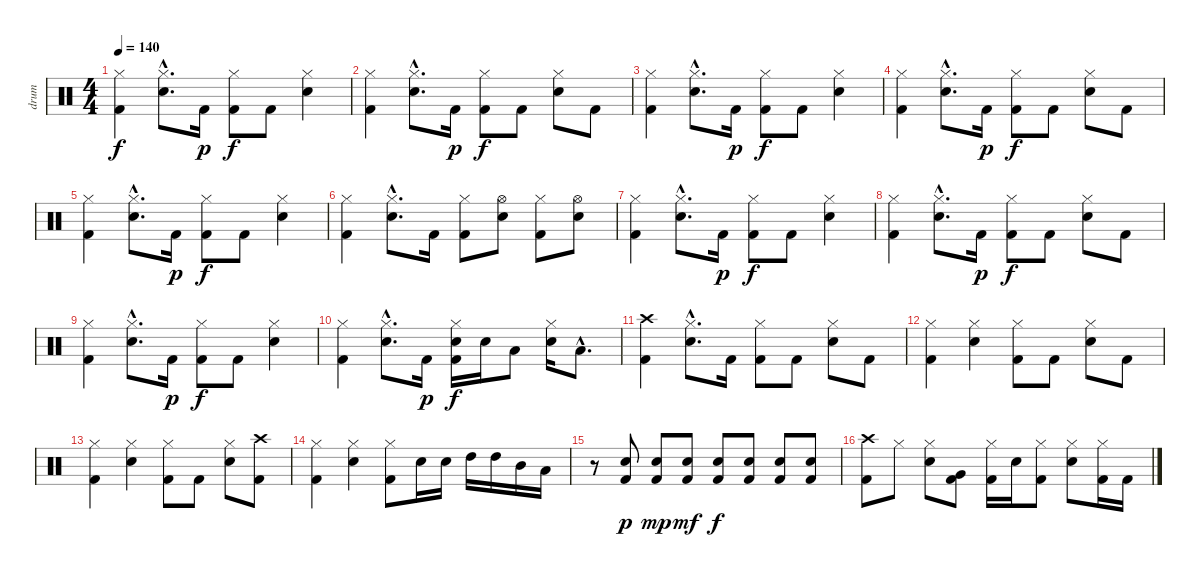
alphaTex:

\track ("drum" "drum") {instrument percussion}
\staff {score}
\articulation defaults
\ts (4 4)
\tempo 140
\clef neutral
\ks c
("Hi-Hat (closed)" "Kick (hit) 2").4{dy f} ("Hi-Hat (closed)"{hac} "Snare (hit) 2"{hac}).8{d} "Kick (hit) 2".16{dy p} ("Hi-Hat (closed)" "Kick (hit) 2").8{dy f} "Kick (hit) 2".8 ("Hi-Hat (closed)" "Snare (hit) 2").4 |
("Hi-Hat (closed)" "Kick (hit) 2").4 ("Hi-Hat (closed)"{hac} "Snare (hit) 2"{hac}).8{d} "Kick (hit) 2".16{dy p} ("Hi-Hat (closed)" "Kick (hit) 2").8{dy f} "Kick (hit) 2".8 ("Hi-Hat (closed)" "Snare (hit) 2").8 "Kick (hit) 2".8 |
("Hi-Hat (closed)" "Kick (hit) 2").4 ("Hi-Hat (closed)"{hac} "Snare (hit) 2"{hac}).8{d} "Kick (hit) 2".16{dy p} ("Hi-Hat (closed)" "Kick (hit) 2").8{dy f} "Kick (hit) 2".8 ("Hi-Hat (closed)" "Snare (hit) 2").4 |
("Hi-Hat (closed)" "Kick (hit) 2").4 ("Hi-Hat (closed)"{hac} "Snare (hit) 2"{hac}).8{d} "Kick (hit) 2".16{dy p} ("Hi-Hat (closed)" "Kick (hit) 2").8{dy f} "Kick (hit) 2".8 ("Hi-Hat (closed)" "Snare (hit) 2").8 "Kick (hit) 2".8 |
("Hi-Hat (closed)" "Kick (hit) 2").4 ("Hi-Hat (closed)"{hac} "Snare (hit) 2"{hac}).8{d} "Kick (hit) 2".16{dy p} ("Hi-Hat (closed)" "Kick (hit) 2").8{dy f} "Kick (hit) 2".8 ("Hi-Hat (closed)" "Snare (hit) 2").4 |
("Hi-Hat (closed)" "Kick (hit) 2").4 ("Hi-Hat (closed)"{hac} "Snare (hit) 2"{hac}).8{d} "Kick (hit) 2".16 ("Hi-Hat (closed)" "Kick (hit) 2").8 ("Hi-Hat (open)" "Snare (hit) 2").8 ("Hi-Hat (closed)" "Kick (hit) 2").8 ("Hi-Hat (open)" "Snare (hit) 2").8 |
("Hi-Hat (closed)" "Kick (hit) 2").4 ("Hi-Hat (closed)"{hac} "Snare (hit) 2"{hac}).8{d} "Kick (hit) 2".16{dy p} ("Hi-Hat (closed)" "Kick (hit) 2").8{dy f} "Kick (hit) 2".8 ("Hi-Hat (closed)" "Snare (hit) 2").4 |
("Hi-Hat (closed)" "Kick (hit) 2").4 ("Hi-Hat (closed)"{hac} "Snare (hit) 2"{hac}).8{d} "Kick (hit) 2".16{dy p} ("Hi-Hat (closed)" "Kick (hit) 2").8{dy f} "Kick (hit) 2".8 ("Hi-Hat (closed)" "Snare (hit) 2").8 "Kick (hit) 2".8 |
("Hi-Hat (closed)" "Kick (hit) 2").4 ("Hi-Hat (closed)"{hac} "Snare (hit) 2"{hac}).8{d} "Kick (hit) 2".16{dy p} ("Hi-Hat (closed)" "Kick (hit) 2").8{dy f} "Kick (hit) 2".8 ("Hi-Hat (closed)" "Snare (hit) 2").4 |
("Hi-Hat (closed)" "Kick (hit) 2").4 ("Hi-Hat (closed)"{hac} "Snare (hit) 2"{hac}).8{d} "Kick (hit) 2".16{dy p} ("Hi-Hat (closed)" "Snare (hit) 2" "Kick (hit) 2").16{dy f} "Snare (hit) 2".16 "Low Tom (hit)".8 ("Hi-Hat (closed)" "Snare (hit) 2").16 "Low Tom (hit)"{hac}.8{d} |
("Crash high (hit)" "Kick (hit) 2").4 ("Hi-Hat (closed)"{hac} "Snare (hit) 2"{hac}).8{d} "Kick (hit) 2".16 ("Hi-Hat (closed)" "Kick (hit) 2").8 "Kick (hit) 2".8 ("Hi-Hat (closed)" "Snare (hit) 2").8 "Kick (hit) 2".8 |
("Hi-Hat (closed)" "Kick (hit) 2").4 ("Hi-Hat (closed)" "Snare (hit) 2").4 ("Hi-Hat (closed)" "Kick (hit) 2").8 "Kick (hit) 2".8 ("Hi-Hat (closed)" "Snare (hit) 2").8 "Kick (hit) 2".8 |
("Hi-Hat (closed)" "Kick (hit) 2").4 ("Hi-Hat (closed)" "Snare (hit) 2").4 ("Hi-Hat (closed)" "Kick (hit) 2").8 "Kick (hit) 2".8 ("Hi-Hat (closed)" "Snare (hit) 2").8 ("Crash high (hit)" "Kick (hit) 2").8 |
("Hi-Hat (closed)" "Kick (hit) 2").4 ("Hi-Hat (closed)" "Snare (hit) 2").4 ("Hi-Hat (closed)" "Kick (hit) 2").8 "Snare (hit) 2".16 "Snare (hit) 2".16 "High Tom (hit)".16 "High Tom (hit)".16 "Mid Tom (hit)".16 "Low Tom (hit)".16 |
r.8 ("Snare (hit) 2" "Kick (hit) 2").8{dy p} ("Snare (hit) 2" "Kick (hit) 2").8{dy mp} ("Snare (hit) 2" "Kick (hit) 2").8{dy mf} ("Snare (hit) 2" "Kick (hit) 2").8{dy f} ("Snare (hit) 2" "Kick (hit) 2").8 ("Snare (hit) 2" "Kick (hit) 2").8 ("Snare (hit) 2" "Kick (hit) 2").8 |
("Crash high (hit)" "Kick (hit) 2").8 "Hi-Hat (closed)".8 ("Hi-Hat (closed)" "Snare (hit) 2").8 ("Very Low Tom (hit)" "Kick (hit) 2").8 ("Hi-Hat (closed)" "Kick (hit) 2").16 "Snare (hit) 2".16 ("Hi-Hat (closed)" "Kick (hit) 2").8 ("Hi-Hat (closed)" "Snare (hit) 2").8 ("Hi-Hat (closed)" "Kick (hit) 2").16 "Kick (hit) 2".16
